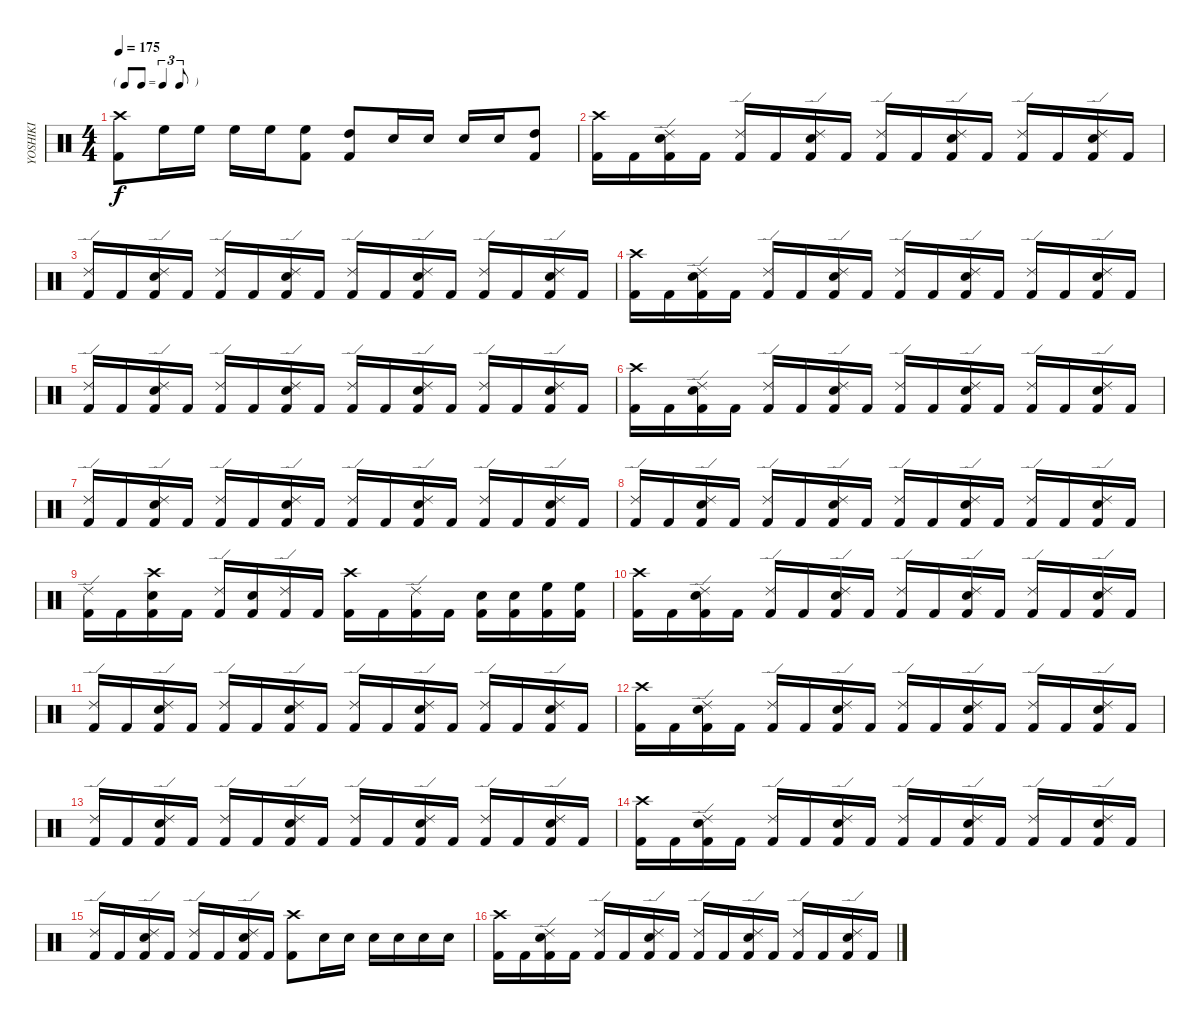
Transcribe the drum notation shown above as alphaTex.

\track ("YOSHIKI" "YOSHIKI") {instrument percussion}
\staff {score}
\articulation defaults
\ts (4 4)
\tf triplet8th
\tempo 175
\clef neutral
\ks c
("Crash high (hit)" "Kick (hit) 2").8{dy f} "High Floor Tom (hit)".16 "High Floor Tom (hit)".16 "High Floor Tom (hit)".16 "High Floor Tom (hit)".16 ("High Floor Tom (hit)" "Kick (hit) 2").8 ("High Tom (hit)" "Kick (hit) 2").8 "Snare (hit) 2".16 "Snare (hit) 2".16 "Snare (hit) 2".16 "Snare (hit) 2".16 ("High Tom (hit)" "Kick (hit) 2").8 |
("Crash high (hit)" "Kick (hit) 2").16 "Kick (hit) 2".16 ("Ride (edge) 2" "Snare (hit) 2" "Kick (hit) 2").16 "Kick (hit) 2".16 ("Ride (edge) 2" "Kick (hit) 2").16 "Kick (hit) 2".16 ("Ride (edge) 2" "Snare (hit) 2" "Kick (hit) 2").16 "Kick (hit) 2".16 ("Ride (edge) 2" "Kick (hit) 2").16 "Kick (hit) 2".16 ("Ride (edge) 2" "Snare (hit) 2" "Kick (hit) 2").16 "Kick (hit) 2".16 ("Ride (edge) 2" "Kick (hit) 2").16 "Kick (hit) 2".16 ("Ride (edge) 2" "Snare (hit) 2" "Kick (hit) 2").16 "Kick (hit) 2".16 |
("Ride (edge) 2" "Kick (hit) 2").16 "Kick (hit) 2".16 ("Ride (edge) 2" "Snare (hit) 2" "Kick (hit) 2").16 "Kick (hit) 2".16 ("Ride (edge) 2" "Kick (hit) 2").16 "Kick (hit) 2".16 ("Ride (edge) 2" "Snare (hit) 2" "Kick (hit) 2").16 "Kick (hit) 2".16 ("Ride (edge) 2" "Kick (hit) 2").16 "Kick (hit) 2".16 ("Ride (edge) 2" "Snare (hit) 2" "Kick (hit) 2").16 "Kick (hit) 2".16 ("Ride (edge) 2" "Kick (hit) 2").16 "Kick (hit) 2".16 ("Ride (edge) 2" "Snare (hit) 2" "Kick (hit) 2").16 "Kick (hit) 2".16 |
("Crash high (hit)" "Kick (hit) 2").16 "Kick (hit) 2".16 ("Ride (edge) 2" "Snare (hit) 2" "Kick (hit) 2").16 "Kick (hit) 2".16 ("Ride (edge) 2" "Kick (hit) 2").16 "Kick (hit) 2".16 ("Ride (edge) 2" "Snare (hit) 2" "Kick (hit) 2").16 "Kick (hit) 2".16 ("Ride (edge) 2" "Kick (hit) 2").16 "Kick (hit) 2".16 ("Ride (edge) 2" "Snare (hit) 2" "Kick (hit) 2").16 "Kick (hit) 2".16 ("Ride (edge) 2" "Kick (hit) 2").16 "Kick (hit) 2".16 ("Ride (edge) 2" "Snare (hit) 2" "Kick (hit) 2").16 "Kick (hit) 2".16 |
("Ride (edge) 2" "Kick (hit) 2").16 "Kick (hit) 2".16 ("Ride (edge) 2" "Snare (hit) 2" "Kick (hit) 2").16 "Kick (hit) 2".16 ("Ride (edge) 2" "Kick (hit) 2").16 "Kick (hit) 2".16 ("Ride (edge) 2" "Snare (hit) 2" "Kick (hit) 2").16 "Kick (hit) 2".16 ("Ride (edge) 2" "Kick (hit) 2").16 "Kick (hit) 2".16 ("Ride (edge) 2" "Snare (hit) 2" "Kick (hit) 2").16 "Kick (hit) 2".16 ("Ride (edge) 2" "Kick (hit) 2").16 "Kick (hit) 2".16 ("Ride (edge) 2" "Snare (hit) 2" "Kick (hit) 2").16 "Kick (hit) 2".16 |
("Crash high (hit)" "Kick (hit) 2").16 "Kick (hit) 2".16 ("Ride (edge) 2" "Snare (hit) 2" "Kick (hit) 2").16 "Kick (hit) 2".16 ("Ride (edge) 2" "Kick (hit) 2").16 "Kick (hit) 2".16 ("Ride (edge) 2" "Snare (hit) 2" "Kick (hit) 2").16 "Kick (hit) 2".16 ("Ride (edge) 2" "Kick (hit) 2").16 "Kick (hit) 2".16 ("Ride (edge) 2" "Snare (hit) 2" "Kick (hit) 2").16 "Kick (hit) 2".16 ("Ride (edge) 2" "Kick (hit) 2").16 "Kick (hit) 2".16 ("Ride (edge) 2" "Snare (hit) 2" "Kick (hit) 2").16 "Kick (hit) 2".16 |
("Ride (edge) 2" "Kick (hit) 2").16 "Kick (hit) 2".16 ("Ride (edge) 2" "Snare (hit) 2" "Kick (hit) 2").16 "Kick (hit) 2".16 ("Ride (edge) 2" "Kick (hit) 2").16 "Kick (hit) 2".16 ("Ride (edge) 2" "Snare (hit) 2" "Kick (hit) 2").16 "Kick (hit) 2".16 ("Ride (edge) 2" "Kick (hit) 2").16 "Kick (hit) 2".16 ("Ride (edge) 2" "Snare (hit) 2" "Kick (hit) 2").16 "Kick (hit) 2".16 ("Ride (edge) 2" "Kick (hit) 2").16 "Kick (hit) 2".16 ("Ride (edge) 2" "Snare (hit) 2" "Kick (hit) 2").16 "Kick (hit) 2".16 |
("Ride (edge) 2" "Kick (hit) 2").16 "Kick (hit) 2".16 ("Ride (edge) 2" "Snare (hit) 2" "Kick (hit) 2").16 "Kick (hit) 2".16 ("Ride (edge) 2" "Kick (hit) 2").16 "Kick (hit) 2".16 ("Ride (edge) 2" "Snare (hit) 2" "Kick (hit) 2").16 "Kick (hit) 2".16 ("Ride (edge) 2" "Kick (hit) 2").16 "Kick (hit) 2".16 ("Ride (edge) 2" "Snare (hit) 2" "Kick (hit) 2").16 "Kick (hit) 2".16 ("Ride (edge) 2" "Kick (hit) 2").16 "Kick (hit) 2".16 ("Ride (edge) 2" "Snare (hit) 2" "Kick (hit) 2").16 "Kick (hit) 2".16 |
("Ride (edge) 2" "Kick (hit) 2").16 "Kick (hit) 2".16 ("Crash high (hit)" "Snare (hit) 2" "Kick (hit) 2").16 "Kick (hit) 2".16 ("Ride (edge) 2" "Kick (hit) 2").16 ("Snare (hit) 2" "Kick (hit) 2").16 ("Ride (edge) 2" "Kick (hit) 2").16 "Kick (hit) 2".16 ("Crash high (hit)" "Kick (hit) 2").16 "Kick (hit) 2".16 ("Ride (edge) 2" "Kick (hit) 2").16 "Kick (hit) 2".16 ("Snare (hit) 2" "Kick (hit) 2").16 ("Snare (hit) 2" "Kick (hit) 2").16 ("High Floor Tom (hit)" "Kick (hit) 2").16 ("High Floor Tom (hit)" "Kick (hit) 2").16 |
("Crash high (hit)" "Kick (hit) 2").16 "Kick (hit) 2".16 ("Ride (edge) 2" "Snare (hit) 2" "Kick (hit) 2").16 "Kick (hit) 2".16 ("Ride (edge) 2" "Kick (hit) 2").16 "Kick (hit) 2".16 ("Ride (edge) 2" "Snare (hit) 2" "Kick (hit) 2").16 "Kick (hit) 2".16 ("Ride (edge) 2" "Kick (hit) 2").16 "Kick (hit) 2".16 ("Ride (edge) 2" "Snare (hit) 2" "Kick (hit) 2").16 "Kick (hit) 2".16 ("Ride (edge) 2" "Kick (hit) 2").16 "Kick (hit) 2".16 ("Ride (edge) 2" "Snare (hit) 2" "Kick (hit) 2").16 "Kick (hit) 2".16 |
("Ride (edge) 2" "Kick (hit) 2").16 "Kick (hit) 2".16 ("Ride (edge) 2" "Snare (hit) 2" "Kick (hit) 2").16 "Kick (hit) 2".16 ("Ride (edge) 2" "Kick (hit) 2").16 "Kick (hit) 2".16 ("Ride (edge) 2" "Snare (hit) 2" "Kick (hit) 2").16 "Kick (hit) 2".16 ("Ride (edge) 2" "Kick (hit) 2").16 "Kick (hit) 2".16 ("Ride (edge) 2" "Snare (hit) 2" "Kick (hit) 2").16 "Kick (hit) 2".16 ("Ride (edge) 2" "Kick (hit) 2").16 "Kick (hit) 2".16 ("Ride (edge) 2" "Snare (hit) 2" "Kick (hit) 2").16 "Kick (hit) 2".16 |
("Crash high (hit)" "Kick (hit) 2").16 "Kick (hit) 2".16 ("Ride (edge) 2" "Snare (hit) 2" "Kick (hit) 2").16 "Kick (hit) 2".16 ("Ride (edge) 2" "Kick (hit) 2").16 "Kick (hit) 2".16 ("Ride (edge) 2" "Snare (hit) 2" "Kick (hit) 2").16 "Kick (hit) 2".16 ("Ride (edge) 2" "Kick (hit) 2").16 "Kick (hit) 2".16 ("Ride (edge) 2" "Snare (hit) 2" "Kick (hit) 2").16 "Kick (hit) 2".16 ("Ride (edge) 2" "Kick (hit) 2").16 "Kick (hit) 2".16 ("Ride (edge) 2" "Snare (hit) 2" "Kick (hit) 2").16 "Kick (hit) 2".16 |
("Ride (edge) 2" "Kick (hit) 2").16 "Kick (hit) 2".16 ("Ride (edge) 2" "Snare (hit) 2" "Kick (hit) 2").16 "Kick (hit) 2".16 ("Ride (edge) 2" "Kick (hit) 2").16 "Kick (hit) 2".16 ("Ride (edge) 2" "Snare (hit) 2" "Kick (hit) 2").16 "Kick (hit) 2".16 ("Ride (edge) 2" "Kick (hit) 2").16 "Kick (hit) 2".16 ("Ride (edge) 2" "Snare (hit) 2" "Kick (hit) 2").16 "Kick (hit) 2".16 ("Ride (edge) 2" "Kick (hit) 2").16 "Kick (hit) 2".16 ("Ride (edge) 2" "Snare (hit) 2" "Kick (hit) 2").16 "Kick (hit) 2".16 |
("Crash high (hit)" "Kick (hit) 2").16 "Kick (hit) 2".16 ("Ride (edge) 2" "Snare (hit) 2" "Kick (hit) 2").16 "Kick (hit) 2".16 ("Ride (edge) 2" "Kick (hit) 2").16 "Kick (hit) 2".16 ("Ride (edge) 2" "Snare (hit) 2" "Kick (hit) 2").16 "Kick (hit) 2".16 ("Ride (edge) 2" "Kick (hit) 2").16 "Kick (hit) 2".16 ("Ride (edge) 2" "Snare (hit) 2" "Kick (hit) 2").16 "Kick (hit) 2".16 ("Ride (edge) 2" "Kick (hit) 2").16 "Kick (hit) 2".16 ("Ride (edge) 2" "Snare (hit) 2" "Kick (hit) 2").16 "Kick (hit) 2".16 |
("Ride (edge) 2" "Kick (hit) 2").16 "Kick (hit) 2".16 ("Ride (edge) 2" "Snare (hit) 2" "Kick (hit) 2").16 "Kick (hit) 2".16 ("Ride (edge) 2" "Kick (hit) 2").16 "Kick (hit) 2".16 ("Ride (edge) 2" "Snare (hit) 2" "Kick (hit) 2").16 "Kick (hit) 2".16 ("Crash high (hit)" "Kick (hit) 2").8 "Snare (hit) 2".16 "Snare (hit) 2".16 "Snare (hit) 2".16 "Snare (hit) 2".16 "Snare (hit) 2".16 "Snare (hit) 2".16 |
("Crash high (hit)" "Kick (hit) 2").16 "Kick (hit) 2".16 ("Ride (edge) 2" "Snare (hit) 2" "Kick (hit) 2").16 "Kick (hit) 2".16 ("Ride (edge) 2" "Kick (hit) 2").16 "Kick (hit) 2".16 ("Ride (edge) 2" "Snare (hit) 2" "Kick (hit) 2").16 "Kick (hit) 2".16 ("Ride (edge) 2" "Kick (hit) 2").16 "Kick (hit) 2".16 ("Ride (edge) 2" "Snare (hit) 2" "Kick (hit) 2").16 "Kick (hit) 2".16 ("Ride (edge) 2" "Kick (hit) 2").16 "Kick (hit) 2".16 ("Ride (edge) 2" "Snare (hit) 2" "Kick (hit) 2").16 "Kick (hit) 2".16
